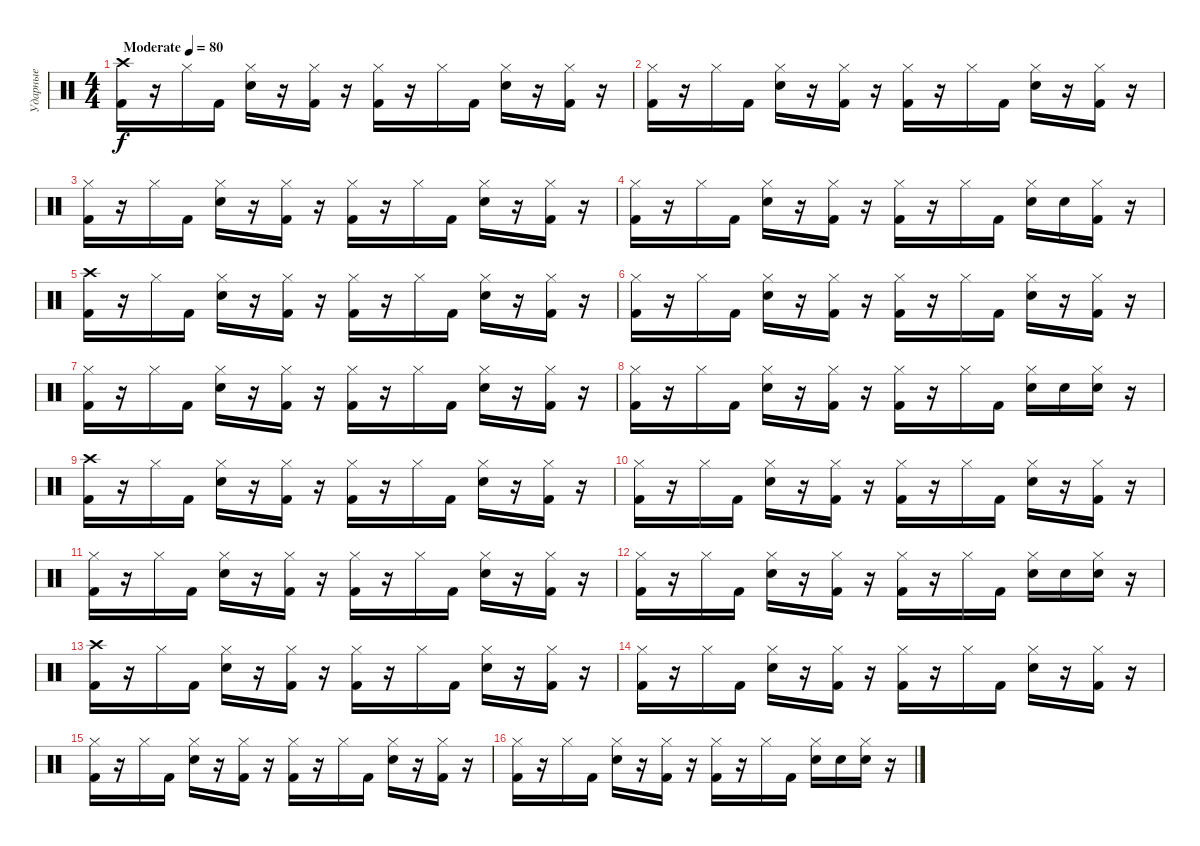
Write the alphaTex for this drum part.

\track ("Ударные" "Ударные") {instrument percussion}
\staff {score}
\articulation defaults
\ts (4 4)
\tempo (80 "Moderate")
\clef neutral
\ks c
("Kick (hit) 2" "Crash high (hit)").16{dy f} r.16 "Hi-Hat (closed)".16 "Kick (hit) 2".16 ("Electric Snare (hit)" "Hi-Hat (closed)").16 r.16 ("Kick (hit) 2" "Hi-Hat (closed)").16 r.16 ("Kick (hit) 2" "Hi-Hat (closed)").16 r.16 "Hi-Hat (closed)".16 "Kick (hit) 2".16 ("Electric Snare (hit)" "Hi-Hat (closed)").16 r.16 ("Kick (hit) 2" "Hi-Hat (closed)").16 r.16 |
("Kick (hit) 2" "Hi-Hat (closed)").16 r.16 "Hi-Hat (closed)".16 "Kick (hit) 2".16 ("Electric Snare (hit)" "Hi-Hat (closed)").16 r.16 ("Kick (hit) 2" "Hi-Hat (closed)").16 r.16 ("Kick (hit) 2" "Hi-Hat (closed)").16 r.16 "Hi-Hat (closed)".16 "Kick (hit) 2".16 ("Electric Snare (hit)" "Hi-Hat (closed)").16 r.16 ("Kick (hit) 2" "Hi-Hat (closed)").16 r.16 |
("Kick (hit) 2" "Hi-Hat (closed)").16 r.16 "Hi-Hat (closed)".16 "Kick (hit) 2".16 ("Electric Snare (hit)" "Hi-Hat (closed)").16 r.16 ("Kick (hit) 2" "Hi-Hat (closed)").16 r.16 ("Kick (hit) 2" "Hi-Hat (closed)").16 r.16 "Hi-Hat (closed)".16 "Kick (hit) 2".16 ("Electric Snare (hit)" "Hi-Hat (closed)").16 r.16 ("Kick (hit) 2" "Hi-Hat (closed)").16 r.16 |
("Kick (hit) 2" "Hi-Hat (closed)").16 r.16 "Hi-Hat (closed)".16 "Kick (hit) 2".16 ("Electric Snare (hit)" "Hi-Hat (closed)").16 r.16 ("Kick (hit) 2" "Hi-Hat (closed)").16 r.16 ("Kick (hit) 2" "Hi-Hat (closed)").16 r.16 "Hi-Hat (closed)".16 "Kick (hit) 2".16 ("Electric Snare (hit)" "Hi-Hat (closed)").16 "Electric Snare (hit)".16 ("Kick (hit) 2" "Hi-Hat (closed)").16 r.16 |
("Kick (hit) 2" "Crash high (hit)").16 r.16 "Hi-Hat (closed)".16 "Kick (hit) 2".16 ("Electric Snare (hit)" "Hi-Hat (closed)").16 r.16 ("Kick (hit) 2" "Hi-Hat (closed)").16 r.16 ("Kick (hit) 2" "Hi-Hat (closed)").16 r.16 "Hi-Hat (closed)".16 "Kick (hit) 2".16 ("Electric Snare (hit)" "Hi-Hat (closed)").16 r.16 ("Kick (hit) 2" "Hi-Hat (closed)").16 r.16 |
("Kick (hit) 2" "Hi-Hat (closed)").16 r.16 "Hi-Hat (closed)".16 "Kick (hit) 2".16 ("Electric Snare (hit)" "Hi-Hat (closed)").16 r.16 ("Kick (hit) 2" "Hi-Hat (closed)").16 r.16 ("Kick (hit) 2" "Hi-Hat (closed)").16 r.16 "Hi-Hat (closed)".16 "Kick (hit) 2".16 ("Electric Snare (hit)" "Hi-Hat (closed)").16 r.16 ("Kick (hit) 2" "Hi-Hat (closed)").16 r.16 |
("Kick (hit) 2" "Hi-Hat (closed)").16 r.16 "Hi-Hat (closed)".16 "Kick (hit) 2".16 ("Electric Snare (hit)" "Hi-Hat (closed)").16 r.16 ("Kick (hit) 2" "Hi-Hat (closed)").16 r.16 ("Kick (hit) 2" "Hi-Hat (closed)").16 r.16 "Hi-Hat (closed)".16 "Kick (hit) 2".16 ("Electric Snare (hit)" "Hi-Hat (closed)").16 r.16 ("Kick (hit) 2" "Hi-Hat (closed)").16 r.16 |
("Kick (hit) 2" "Hi-Hat (closed)").16 r.16 "Hi-Hat (closed)".16 "Kick (hit) 2".16 ("Electric Snare (hit)" "Hi-Hat (closed)").16 r.16 ("Kick (hit) 2" "Hi-Hat (closed)").16 r.16 ("Kick (hit) 2" "Hi-Hat (closed)").16 r.16 "Hi-Hat (closed)".16 "Kick (hit) 2".16 ("Electric Snare (hit)" "Hi-Hat (closed)").16 "Electric Snare (hit)".16 ("Electric Snare (hit)" "Hi-Hat (closed)").16 r.16 |
("Kick (hit) 2" "Crash high (hit)").16 r.16 "Hi-Hat (closed)".16 "Kick (hit) 2".16 ("Electric Snare (hit)" "Hi-Hat (closed)").16 r.16 ("Kick (hit) 2" "Hi-Hat (closed)").16 r.16 ("Kick (hit) 2" "Hi-Hat (closed)").16 r.16 "Hi-Hat (closed)".16 "Kick (hit) 2".16 ("Electric Snare (hit)" "Hi-Hat (closed)").16 r.16 ("Kick (hit) 2" "Hi-Hat (closed)").16 r.16 |
("Kick (hit) 2" "Hi-Hat (closed)").16 r.16 "Hi-Hat (closed)".16 "Kick (hit) 2".16 ("Electric Snare (hit)" "Hi-Hat (closed)").16 r.16 ("Kick (hit) 2" "Hi-Hat (closed)").16 r.16 ("Kick (hit) 2" "Hi-Hat (closed)").16 r.16 "Hi-Hat (closed)".16 "Kick (hit) 2".16 ("Electric Snare (hit)" "Hi-Hat (closed)").16 r.16 ("Kick (hit) 2" "Hi-Hat (closed)").16 r.16 |
("Kick (hit) 2" "Hi-Hat (closed)").16 r.16 "Hi-Hat (closed)".16 "Kick (hit) 2".16 ("Electric Snare (hit)" "Hi-Hat (closed)").16 r.16 ("Kick (hit) 2" "Hi-Hat (closed)").16 r.16 ("Kick (hit) 2" "Hi-Hat (closed)").16 r.16 "Hi-Hat (closed)".16 "Kick (hit) 2".16 ("Electric Snare (hit)" "Hi-Hat (closed)").16 r.16 ("Kick (hit) 2" "Hi-Hat (closed)").16 r.16 |
("Kick (hit) 2" "Hi-Hat (closed)").16 r.16 "Hi-Hat (closed)".16 "Kick (hit) 2".16 ("Electric Snare (hit)" "Hi-Hat (closed)").16 r.16 ("Kick (hit) 2" "Hi-Hat (closed)").16 r.16 ("Kick (hit) 2" "Hi-Hat (closed)").16 r.16 "Hi-Hat (closed)".16 "Kick (hit) 2".16 ("Electric Snare (hit)" "Hi-Hat (closed)").16 "Electric Snare (hit)".16 ("Electric Snare (hit)" "Hi-Hat (closed)").16 r.16 |
("Kick (hit) 2" "Crash high (hit)").16 r.16 "Hi-Hat (closed)".16 "Kick (hit) 2".16 ("Electric Snare (hit)" "Hi-Hat (closed)").16 r.16 ("Kick (hit) 2" "Hi-Hat (closed)").16 r.16 ("Kick (hit) 2" "Hi-Hat (closed)").16 r.16 "Hi-Hat (closed)".16 "Kick (hit) 2".16 ("Electric Snare (hit)" "Hi-Hat (closed)").16 r.16 ("Kick (hit) 2" "Hi-Hat (closed)").16 r.16 |
("Kick (hit) 2" "Hi-Hat (closed)").16 r.16 "Hi-Hat (closed)".16 "Kick (hit) 2".16 ("Electric Snare (hit)" "Hi-Hat (closed)").16 r.16 ("Kick (hit) 2" "Hi-Hat (closed)").16 r.16 ("Kick (hit) 2" "Hi-Hat (closed)").16 r.16 "Hi-Hat (closed)".16 "Kick (hit) 2".16 ("Electric Snare (hit)" "Hi-Hat (closed)").16 r.16 ("Kick (hit) 2" "Hi-Hat (closed)").16 r.16 |
("Kick (hit) 2" "Hi-Hat (closed)").16 r.16 "Hi-Hat (closed)".16 "Kick (hit) 2".16 ("Electric Snare (hit)" "Hi-Hat (closed)").16 r.16 ("Kick (hit) 2" "Hi-Hat (closed)").16 r.16 ("Kick (hit) 2" "Hi-Hat (closed)").16 r.16 "Hi-Hat (closed)".16 "Kick (hit) 2".16 ("Electric Snare (hit)" "Hi-Hat (closed)").16 r.16 ("Kick (hit) 2" "Hi-Hat (closed)").16 r.16 |
("Kick (hit) 2" "Hi-Hat (closed)").16 r.16 "Hi-Hat (closed)".16 "Kick (hit) 2".16 ("Electric Snare (hit)" "Hi-Hat (closed)").16 r.16 ("Kick (hit) 2" "Hi-Hat (closed)").16 r.16 ("Kick (hit) 2" "Hi-Hat (closed)").16 r.16 "Hi-Hat (closed)".16 "Kick (hit) 2".16 ("Electric Snare (hit)" "Hi-Hat (closed)").16 "Electric Snare (hit)".16 ("Electric Snare (hit)" "Hi-Hat (closed)").16 r.16
